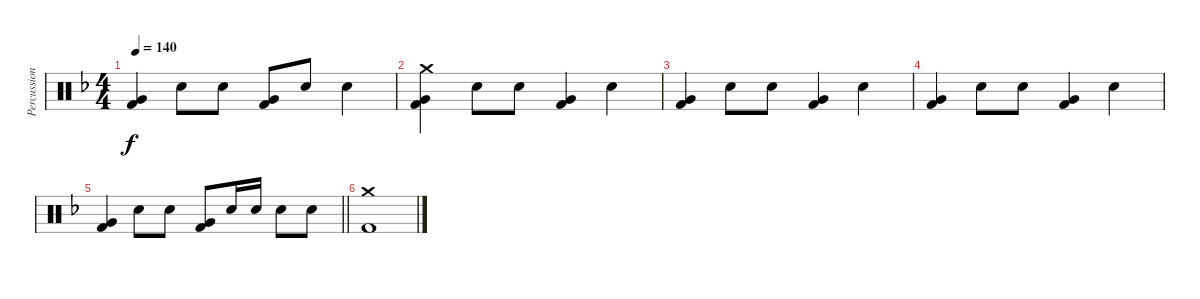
\track ("Percussion" "Percussion") {instrument percussion}
\staff {score}
\articulation defaults
\ts (4 4)
\tempo 140
\clef neutral
\ks dminor
("Very Low Tom (hit)" "Kick (hit) 2").4{dy f} "Snare (hit) 2".8 "Snare (hit) 2".8 ("Very Low Tom (hit)" "Kick (hit) 2").8 "Snare (hit) 2".8 "Snare (hit) 2".4 |
("Crash medium (hit)" "Very Low Tom (hit)" "Kick (hit) 2").4 "Snare (hit) 2".8 "Snare (hit) 2".8 ("Very Low Tom (hit)" "Kick (hit) 2").4 "Snare (hit) 2".4 |
("Very Low Tom (hit)" "Kick (hit) 2").4 "Snare (hit) 2".8 "Snare (hit) 2".8 ("Very Low Tom (hit)" "Kick (hit) 2").4 "Snare (hit) 2".4 |
("Very Low Tom (hit)" "Kick (hit) 2").4 "Snare (hit) 2".8 "Snare (hit) 2".8 ("Very Low Tom (hit)" "Kick (hit) 2").4 "Snare (hit) 2".4 |
\barLineRight lightlight
("Very Low Tom (hit)" "Kick (hit) 2").4 "Snare (hit) 2".8 "Snare (hit) 2".8 ("Very Low Tom (hit)" "Kick (hit) 2").8 "Snare (hit) 2".16 "Snare (hit) 2".16 "Snare (hit) 2".8 "Snare (hit) 2".8 |
("Crash medium (hit)" "Kick (hit) 2").1
